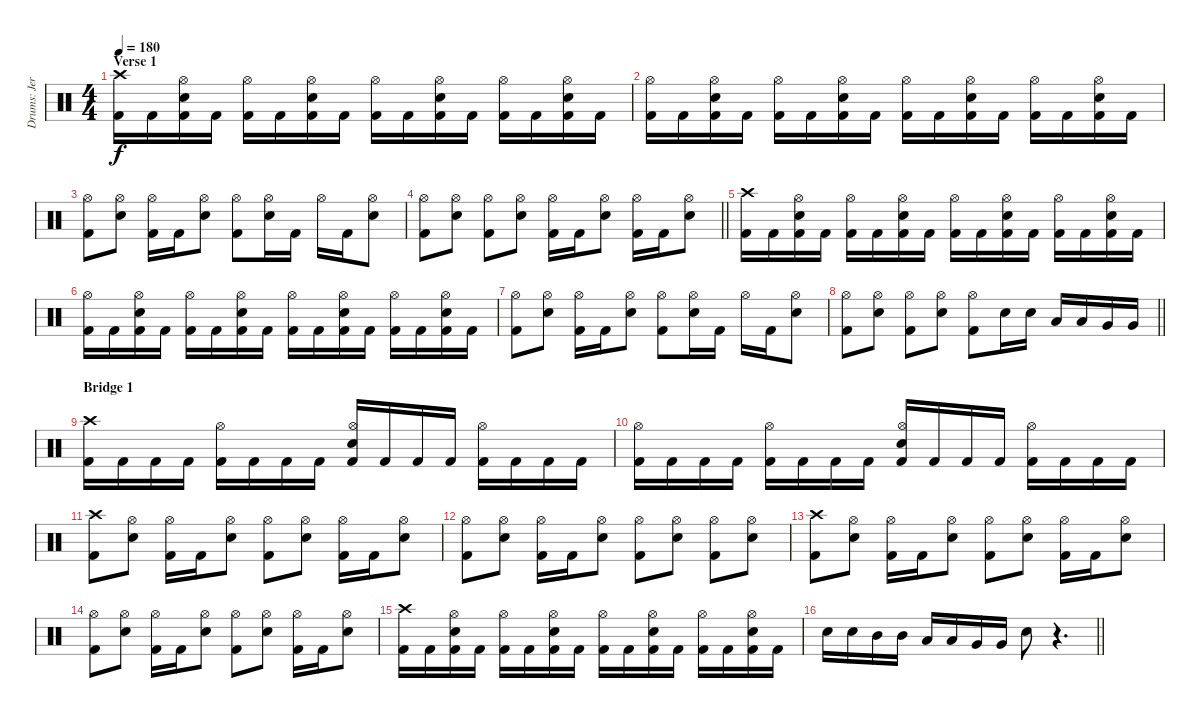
\track ("Drums: Jere Luokkamäki" "Drums: Jer") {instrument percussion}
\staff {score}
\articulation defaults
\ts (4 4)
\section ("" "Verse 1")
\tempo 180
\clef neutral
\ks aminor
("Crash high (hit)" "Kick (hit) 2").16{dy f} "Kick (hit) 2".16 ("Hi-Hat (open)" "Electric Snare (hit)" "Kick (hit) 2").16 "Kick (hit) 2".16 ("Hi-Hat (open)" "Kick (hit) 2").16 "Kick (hit) 2".16 ("Hi-Hat (open)" "Electric Snare (hit)" "Kick (hit) 2").16 "Kick (hit) 2".16 ("Hi-Hat (open)" "Kick (hit) 2").16 "Kick (hit) 2".16 ("Hi-Hat (open)" "Electric Snare (hit)" "Kick (hit) 2").16 "Kick (hit) 2".16 ("Hi-Hat (open)" "Kick (hit) 2").16 "Kick (hit) 2".16 ("Hi-Hat (open)" "Electric Snare (hit)" "Kick (hit) 2").16 "Kick (hit) 2".16 |
("Hi-Hat (open)" "Kick (hit) 2").16 "Kick (hit) 2".16 ("Hi-Hat (open)" "Electric Snare (hit)" "Kick (hit) 2").16 "Kick (hit) 2".16 ("Hi-Hat (open)" "Kick (hit) 2").16 "Kick (hit) 2".16 ("Hi-Hat (open)" "Electric Snare (hit)" "Kick (hit) 2").16 "Kick (hit) 2".16 ("Hi-Hat (open)" "Kick (hit) 2").16 "Kick (hit) 2".16 ("Hi-Hat (open)" "Electric Snare (hit)" "Kick (hit) 2").16 "Kick (hit) 2".16 ("Hi-Hat (open)" "Kick (hit) 2").16 "Kick (hit) 2".16 ("Hi-Hat (open)" "Electric Snare (hit)" "Kick (hit) 2").16 "Kick (hit) 2".16 |
("Hi-Hat (open)" "Kick (hit) 2").8 ("Hi-Hat (open)" "Electric Snare (hit)").8 ("Hi-Hat (open)" "Kick (hit) 2").16 "Kick (hit) 2".16 ("Hi-Hat (open)" "Electric Snare (hit)").8 ("Hi-Hat (open)" "Kick (hit) 2").8 ("Hi-Hat (open)" "Electric Snare (hit)").16 "Kick (hit) 2".16 "Hi-Hat (open)".16 "Kick (hit) 2".16 ("Hi-Hat (open)" "Electric Snare (hit)").8 |
\barLineRight lightlight
("Hi-Hat (open)" "Kick (hit) 2").8 ("Hi-Hat (open)" "Electric Snare (hit)").8 ("Hi-Hat (open)" "Kick (hit) 2").8 ("Hi-Hat (open)" "Electric Snare (hit)").8 ("Hi-Hat (open)" "Kick (hit) 2").16 "Kick (hit) 2".16 ("Hi-Hat (open)" "Electric Snare (hit)").8 ("Hi-Hat (open)" "Kick (hit) 2").16 "Kick (hit) 2".16 ("Hi-Hat (open)" "Electric Snare (hit)").8 |
("Crash high (hit)" "Kick (hit) 2").16 "Kick (hit) 2".16 ("Hi-Hat (open)" "Electric Snare (hit)" "Kick (hit) 2").16 "Kick (hit) 2".16 ("Hi-Hat (open)" "Kick (hit) 2").16 "Kick (hit) 2".16 ("Hi-Hat (open)" "Electric Snare (hit)" "Kick (hit) 2").16 "Kick (hit) 2".16 ("Hi-Hat (open)" "Kick (hit) 2").16 "Kick (hit) 2".16 ("Hi-Hat (open)" "Electric Snare (hit)" "Kick (hit) 2").16 "Kick (hit) 2".16 ("Hi-Hat (open)" "Kick (hit) 2").16 "Kick (hit) 2".16 ("Hi-Hat (open)" "Electric Snare (hit)" "Kick (hit) 2").16 "Kick (hit) 2".16 |
("Hi-Hat (open)" "Kick (hit) 2").16 "Kick (hit) 2".16 ("Hi-Hat (open)" "Electric Snare (hit)" "Kick (hit) 2").16 "Kick (hit) 2".16 ("Hi-Hat (open)" "Kick (hit) 2").16 "Kick (hit) 2".16 ("Hi-Hat (open)" "Electric Snare (hit)" "Kick (hit) 2").16 "Kick (hit) 2".16 ("Hi-Hat (open)" "Kick (hit) 2").16 "Kick (hit) 2".16 ("Hi-Hat (open)" "Electric Snare (hit)" "Kick (hit) 2").16 "Kick (hit) 2".16 ("Hi-Hat (open)" "Kick (hit) 2").16 "Kick (hit) 2".16 ("Hi-Hat (open)" "Electric Snare (hit)" "Kick (hit) 2").16 "Kick (hit) 2".16 |
("Hi-Hat (open)" "Kick (hit) 2").8 ("Hi-Hat (open)" "Electric Snare (hit)").8 ("Hi-Hat (open)" "Kick (hit) 2").16 "Kick (hit) 2".16 ("Hi-Hat (open)" "Electric Snare (hit)").8 ("Hi-Hat (open)" "Kick (hit) 2").8 ("Hi-Hat (open)" "Electric Snare (hit)").16 "Kick (hit) 2".16 "Hi-Hat (open)".16 "Kick (hit) 2".16 ("Hi-Hat (open)" "Electric Snare (hit)").8 |
\barLineRight lightlight
("Hi-Hat (open)" "Kick (hit) 2").8 ("Hi-Hat (open)" "Electric Snare (hit)").8 ("Hi-Hat (open)" "Kick (hit) 2").8 ("Hi-Hat (open)" "Electric Snare (hit)").8 ("Hi-Hat (open)" "Kick (hit) 2").8 "Electric Snare (hit)".16 "Electric Snare (hit)".16 "Low Tom (hit)".16 "Low Tom (hit)".16 "Very Low Tom (hit)".16 "Very Low Tom (hit)".16 |
\section ("" "Bridge 1")
("Crash high (hit)" "Kick (hit) 2").16 "Kick (hit) 2".16 "Kick (hit) 2".16 "Kick (hit) 2".16 ("Hi-Hat (open)" "Kick (hit) 2").16 "Kick (hit) 2".16 "Kick (hit) 2".16 "Kick (hit) 2".16 ("Hi-Hat (open)" "Electric Snare (hit)" "Kick (hit) 2").16 "Kick (hit) 2".16 "Kick (hit) 2".16 "Kick (hit) 2".16 ("Hi-Hat (open)" "Kick (hit) 2").16 "Kick (hit) 2".16 "Kick (hit) 2".16 "Kick (hit) 2".16 |
("Hi-Hat (open)" "Kick (hit) 2").16 "Kick (hit) 2".16 "Kick (hit) 2".16 "Kick (hit) 2".16 ("Hi-Hat (open)" "Kick (hit) 2").16 "Kick (hit) 2".16 "Kick (hit) 2".16 "Kick (hit) 2".16 ("Hi-Hat (open)" "Electric Snare (hit)" "Kick (hit) 2").16 "Kick (hit) 2".16 "Kick (hit) 2".16 "Kick (hit) 2".16 ("Hi-Hat (open)" "Kick (hit) 2").16 "Kick (hit) 2".16 "Kick (hit) 2".16 "Kick (hit) 2".16 |
("Crash high (hit)" "Kick (hit) 2").8 ("Hi-Hat (open)" "Electric Snare (hit)").8 ("Hi-Hat (open)" "Kick (hit) 2").16 "Kick (hit) 2".16 ("Hi-Hat (open)" "Electric Snare (hit)").8 ("Hi-Hat (open)" "Kick (hit) 2").8 ("Hi-Hat (open)" "Electric Snare (hit)").8 ("Hi-Hat (open)" "Kick (hit) 2").16 "Kick (hit) 2".16 ("Hi-Hat (open)" "Electric Snare (hit)").8 |
("Hi-Hat (open)" "Kick (hit) 2").8 ("Hi-Hat (open)" "Electric Snare (hit)").8 ("Hi-Hat (open)" "Kick (hit) 2").16 "Kick (hit) 2".16 ("Hi-Hat (open)" "Electric Snare (hit)").8 ("Hi-Hat (open)" "Kick (hit) 2").8 ("Hi-Hat (open)" "Electric Snare (hit)").8 ("Hi-Hat (open)" "Kick (hit) 2").8 ("Hi-Hat (open)" "Electric Snare (hit)").8 |
("Crash high (hit)" "Kick (hit) 2").8 ("Hi-Hat (open)" "Electric Snare (hit)").8 ("Hi-Hat (open)" "Kick (hit) 2").16 "Kick (hit) 2".16 ("Hi-Hat (open)" "Electric Snare (hit)").8 ("Hi-Hat (open)" "Kick (hit) 2").8 ("Hi-Hat (open)" "Electric Snare (hit)").8 ("Hi-Hat (open)" "Kick (hit) 2").16 "Kick (hit) 2".16 ("Hi-Hat (open)" "Electric Snare (hit)").8 |
("Hi-Hat (open)" "Kick (hit) 2").8 ("Hi-Hat (open)" "Electric Snare (hit)").8 ("Hi-Hat (open)" "Kick (hit) 2").16 "Kick (hit) 2".16 ("Hi-Hat (open)" "Electric Snare (hit)").8 ("Hi-Hat (open)" "Kick (hit) 2").8 ("Hi-Hat (open)" "Electric Snare (hit)").8 ("Hi-Hat (open)" "Kick (hit) 2").16 "Kick (hit) 2".16 ("Hi-Hat (open)" "Electric Snare (hit)").8 |
("Crash high (hit)" "Kick (hit) 2").16 "Kick (hit) 2".16 ("Hi-Hat (open)" "Electric Snare (hit)" "Kick (hit) 2").16 "Kick (hit) 2".16 ("Hi-Hat (open)" "Kick (hit) 2").16 "Kick (hit) 2".16 ("Hi-Hat (open)" "Electric Snare (hit)" "Kick (hit) 2").16 "Kick (hit) 2".16 ("Hi-Hat (open)" "Kick (hit) 2").16 "Kick (hit) 2".16 ("Hi-Hat (open)" "Electric Snare (hit)" "Kick (hit) 2").16 "Kick (hit) 2".16 ("Hi-Hat (open)" "Kick (hit) 2").16 "Kick (hit) 2".16 ("Hi-Hat (open)" "Electric Snare (hit)" "Kick (hit) 2").16 "Kick (hit) 2".16 |
\barLineRight lightlight "Electric Snare (hit)".16 "Electric Snare (hit)".16 "Mid Tom (hit)".16 "Mid Tom (hit)".16 "Low Tom (hit)".16 "Low Tom (hit)".16 "Very Low Tom (hit)".16 "Very Low Tom (hit)".16 "Electric Snare (hit)".8
r.4{d}
